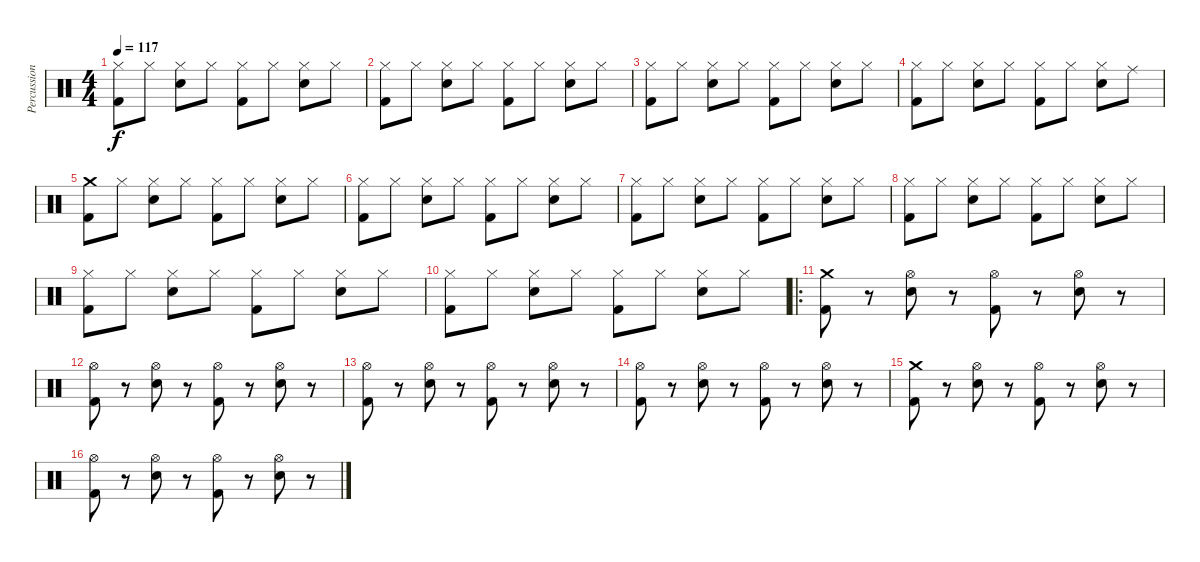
\track ("Percussions" "Percussion") {instrument percussion}
\staff {score}
\articulation defaults
\ts (4 4)
\tempo 117
\clef neutral
\ks c
("Hi-Hat (closed)" "Kick (hit) 2").8{dy f} "Hi-Hat (closed)".8 ("Hi-Hat (closed)" "Electric Snare (hit)").8 "Hi-Hat (closed)".8 ("Hi-Hat (closed)" "Kick (hit) 2").8 "Hi-Hat (closed)".8 ("Hi-Hat (closed)" "Electric Snare (hit)").8 "Hi-Hat (closed)".8 |
("Hi-Hat (closed)" "Kick (hit) 2").8 "Hi-Hat (closed)".8 ("Hi-Hat (closed)" "Electric Snare (hit)").8 "Hi-Hat (closed)".8 ("Hi-Hat (closed)" "Kick (hit) 2").8 "Hi-Hat (closed)".8 ("Hi-Hat (closed)" "Electric Snare (hit)").8 "Hi-Hat (closed)".8 |
("Hi-Hat (closed)" "Kick (hit) 2").8 "Hi-Hat (closed)".8 ("Hi-Hat (closed)" "Electric Snare (hit)").8 "Hi-Hat (closed)".8 ("Hi-Hat (closed)" "Kick (hit) 2").8 "Hi-Hat (closed)".8 ("Hi-Hat (closed)" "Electric Snare (hit)").8 "Hi-Hat (closed)".8 |
("Hi-Hat (closed)" "Kick (hit) 2").8 "Hi-Hat (closed)".8 ("Hi-Hat (closed)" "Electric Snare (hit)").8 "Hi-Hat (closed)".8 ("Hi-Hat (closed)" "Kick (hit) 2").8 "Hi-Hat (closed)".8 ("Hi-Hat (closed)" "Electric Snare (hit)").8 "Ride (middle)".8 |
("Crash medium (hit)" "Kick (hit) 2").8 "Hi-Hat (closed)".8 ("Hi-Hat (closed)" "Electric Snare (hit)").8 "Hi-Hat (closed)".8 ("Hi-Hat (closed)" "Kick (hit) 2").8 "Hi-Hat (closed)".8 ("Hi-Hat (closed)" "Electric Snare (hit)").8 "Hi-Hat (closed)".8 |
("Hi-Hat (closed)" "Kick (hit) 2").8 "Hi-Hat (closed)".8 ("Hi-Hat (closed)" "Electric Snare (hit)").8 "Hi-Hat (closed)".8 ("Hi-Hat (closed)" "Kick (hit) 2").8 "Hi-Hat (closed)".8 ("Hi-Hat (closed)" "Electric Snare (hit)").8 "Hi-Hat (closed)".8 |
("Hi-Hat (closed)" "Kick (hit) 2").8 "Hi-Hat (closed)".8 ("Hi-Hat (closed)" "Electric Snare (hit)").8 "Hi-Hat (closed)".8 ("Hi-Hat (closed)" "Kick (hit) 2").8 "Hi-Hat (closed)".8 ("Hi-Hat (closed)" "Electric Snare (hit)").8 "Hi-Hat (closed)".8 |
("Hi-Hat (closed)" "Kick (hit) 2").8 "Hi-Hat (closed)".8 ("Hi-Hat (closed)" "Electric Snare (hit)").8 "Hi-Hat (closed)".8 ("Hi-Hat (closed)" "Kick (hit) 2").8 "Hi-Hat (closed)".8 ("Hi-Hat (closed)" "Electric Snare (hit)").8 "Hi-Hat (closed)".8 |
("Hi-Hat (closed)" "Kick (hit) 2").8 "Hi-Hat (closed)".8 ("Hi-Hat (closed)" "Electric Snare (hit)").8 "Hi-Hat (closed)".8 ("Hi-Hat (closed)" "Kick (hit) 2").8 "Hi-Hat (closed)".8 ("Hi-Hat (closed)" "Electric Snare (hit)").8 "Hi-Hat (closed)".8 |
("Hi-Hat (closed)" "Kick (hit) 2").8 "Hi-Hat (closed)".8 ("Hi-Hat (closed)" "Electric Snare (hit)").8 "Hi-Hat (closed)".8 ("Hi-Hat (closed)" "Kick (hit) 2").8 "Hi-Hat (closed)".8 ("Hi-Hat (closed)" "Electric Snare (hit)").8 "Hi-Hat (closed)".8 |
\ro
("Crash medium (hit)" "Kick (hit) 2").8 r.8 ("Hi-Hat (open)" "Electric Snare (hit)").8 r.8 ("Hi-Hat (open)" "Kick (hit) 2").8 r.8 ("Hi-Hat (open)" "Electric Snare (hit)").8 r.8 |
("Hi-Hat (open)" "Kick (hit) 2").8 r.8 ("Hi-Hat (open)" "Electric Snare (hit)").8 r.8 ("Hi-Hat (open)" "Kick (hit) 2").8 r.8 ("Hi-Hat (open)" "Electric Snare (hit)").8 r.8 |
("Hi-Hat (open)" "Kick (hit) 2").8 r.8 ("Hi-Hat (open)" "Electric Snare (hit)").8 r.8 ("Hi-Hat (open)" "Kick (hit) 2").8 r.8 ("Hi-Hat (open)" "Electric Snare (hit)").8 r.8 |
("Hi-Hat (open)" "Kick (hit) 2").8 r.8 ("Hi-Hat (open)" "Electric Snare (hit)").8 r.8 ("Hi-Hat (open)" "Kick (hit) 2").8 r.8 ("Hi-Hat (open)" "Electric Snare (hit)").8 r.8 |
("Crash medium (hit)" "Kick (hit) 2").8 r.8 ("Hi-Hat (open)" "Electric Snare (hit)").8 r.8 ("Hi-Hat (open)" "Kick (hit) 2").8 r.8 ("Hi-Hat (open)" "Electric Snare (hit)").8 r.8 |
("Hi-Hat (open)" "Kick (hit) 2").8 r.8 ("Hi-Hat (open)" "Electric Snare (hit)").8 r.8 ("Hi-Hat (open)" "Kick (hit) 2").8 r.8 ("Hi-Hat (open)" "Electric Snare (hit)").8 r.8
